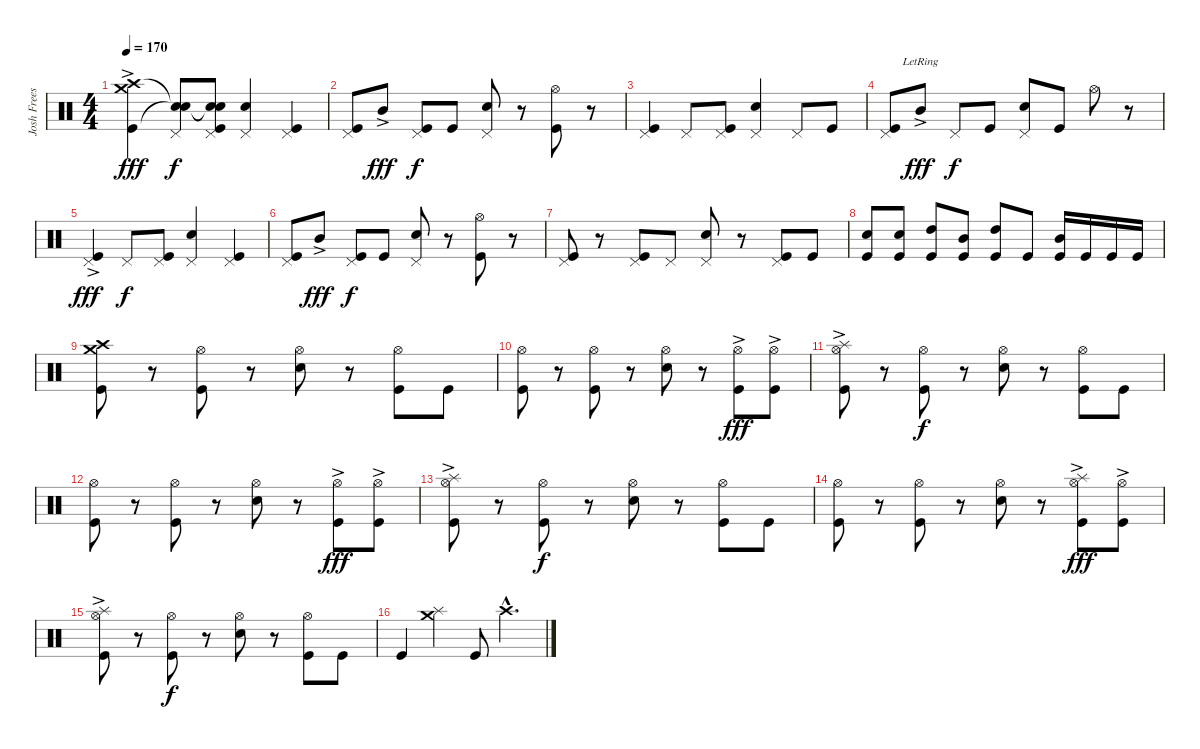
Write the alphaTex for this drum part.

\track ("Josh Freese - Drums" "Josh Frees") {instrument percussion}
\staff {score}
\articulation defaults
\ts (4 4)
\tempo 170
\clef neutral
\ks c
("Crash high (hit)"{ac} "Crash medium (hit)"{ac} "Kick (hit)"{ac}).4{dy fff} ("Snare (hit)"{t} "Pedal Hi-Hat (hit)" "Snare (hit)"{t}).8{dy f} ("Snare (hit)"{t} "Pedal Hi-Hat (hit)" "Snare (hit)"{t} "Kick (hit)").8 ("Pedal Hi-Hat (hit)" "Electric Snare (hit)").4 ("Pedal Hi-Hat (hit)" "Kick (hit)").4 |
("Pedal Hi-Hat (hit)" "Kick (hit)").8 "Mid Tom (hit)"{ac}.8{dy fff} ("Pedal Hi-Hat (hit)" "Kick (hit)").8{dy f} "Kick (hit)".8 ("Pedal Hi-Hat (hit)" "Electric Snare (hit)").8 r.8 ("Hi-Hat (open)" "Kick (hit)").8 r.8 |
("Pedal Hi-Hat (hit)" "Kick (hit)").4 "Pedal Hi-Hat (hit)".8 ("Pedal Hi-Hat (hit)" "Kick (hit)").8 ("Pedal Hi-Hat (hit)" "Electric Snare (hit)").4 "Pedal Hi-Hat (hit)".8 "Kick (hit)".8 |
("Pedal Hi-Hat (hit)" "Kick (hit)").8 "Mid Tom (hit)"{ac lr}.8{dy fff} "Pedal Hi-Hat (hit)".8{dy f} "Kick (hit)".8 ("Pedal Hi-Hat (hit)" "Electric Snare (hit)").8 "Kick (hit)".8 "Hi-Hat (open)".8 r.8 |
("Pedal Hi-Hat (hit)" "Kick (hit)"{ac}).4{dy fff} "Pedal Hi-Hat (hit)".8{dy f} ("Pedal Hi-Hat (hit)" "Kick (hit)").8 ("Pedal Hi-Hat (hit)" "Electric Snare (hit)").4 ("Pedal Hi-Hat (hit)" "Kick (hit)").4 |
("Pedal Hi-Hat (hit)" "Kick (hit)").8 "Mid Tom (hit)"{ac}.8{dy fff} ("Pedal Hi-Hat (hit)" "Kick (hit)").8{dy f} "Kick (hit)".8 ("Pedal Hi-Hat (hit)" "Electric Snare (hit)").8 r.8 ("Hi-Hat (open)" "Kick (hit)").8 r.8 |
("Pedal Hi-Hat (hit)" "Kick (hit)").8 r.8 ("Pedal Hi-Hat (hit)" "Kick (hit)").8 "Pedal Hi-Hat (hit)".8 ("Pedal Hi-Hat (hit)" "Electric Snare (hit)").8 r.8 ("Pedal Hi-Hat (hit)" "Kick (hit)").8 "Kick (hit)".8 |
("Snare (hit)" "Kick (hit)").8{volume 16} ("Electric Snare (hit)" "Kick (hit)").8 ("High Tom (hit)" "Kick (hit)").8 ("Mid Tom (hit)" "Kick (hit)").8 ("High Tom (hit)" "Kick (hit)").8 "Kick (hit)".8 ("Mid Tom (hit)" "Kick (hit)").16 "Kick (hit)".16 "Kick (hit)".16 "Kick (hit)".16 |
("Crash high (hit)" "Crash medium (hit)" "Kick (hit)").8 r.8 ("Hi-Hat (open)" "Kick (hit)").8 r.8 ("Hi-Hat (open)" "Electric Snare (hit)").8 r.8 ("Hi-Hat (open)" "Kick (hit)").8 "Kick (hit)".8 |
("Hi-Hat (open)" "Kick (hit)").8 r.8 ("Hi-Hat (open)" "Kick (hit)").8 r.8 ("Hi-Hat (open)" "Electric Snare (hit)").8 r.8 ("Hi-Hat (open)"{ac} "Kick (hit)").8{dy fff} ("Hi-Hat (open)"{ac} "Kick (hit)").8 |
("Splash (hit)"{ac} "Hi-Hat (open)" "Kick (hit)").8 r.8 ("Hi-Hat (open)" "Kick (hit)").8{dy f} r.8 ("Hi-Hat (open)" "Electric Snare (hit)").8 r.8 ("Hi-Hat (open)" "Kick (hit)").8 "Kick (hit)".8 |
("Hi-Hat (open)" "Kick (hit)").8 r.8 ("Hi-Hat (open)" "Kick (hit)").8 r.8 ("Hi-Hat (open)" "Electric Snare (hit)").8 r.8 ("Hi-Hat (open)"{ac} "Kick (hit)").8{dy fff} ("Hi-Hat (open)"{ac} "Kick (hit)").8 |
("Splash (hit)"{ac} "Hi-Hat (open)" "Kick (hit)").8 r.8 ("Hi-Hat (open)" "Kick (hit)").8{dy f} r.8 ("Hi-Hat (open)" "Electric Snare (hit)").8 r.8 ("Hi-Hat (open)" "Kick (hit)").8 "Kick (hit)".8 |
("Hi-Hat (open)" "Kick (hit)").8 r.8 ("Hi-Hat (open)" "Kick (hit)").8 r.8 ("Hi-Hat (open)" "Electric Snare (hit)").8 r.8 ("Splash (hit)"{ac} "Hi-Hat (open)"{ac} "Kick (hit)").8{dy fff} ("Hi-Hat (open)"{ac} "Kick (hit)").8 |
("Splash (hit)"{ac} "Hi-Hat (open)" "Kick (hit)").8 r.8 ("Hi-Hat (open)" "Kick (hit)").8{dy f} r.8 ("Hi-Hat (open)" "Electric Snare (hit)").8 r.8 ("Hi-Hat (open)" "Kick (hit)").8 "Kick (hit)".8 |
"Kick (hit)".4 ("Crash medium (hit)" "Splash (hit)").4 "Kick (hit)".8 "Crash high (hit)"{hac}.4{d}
